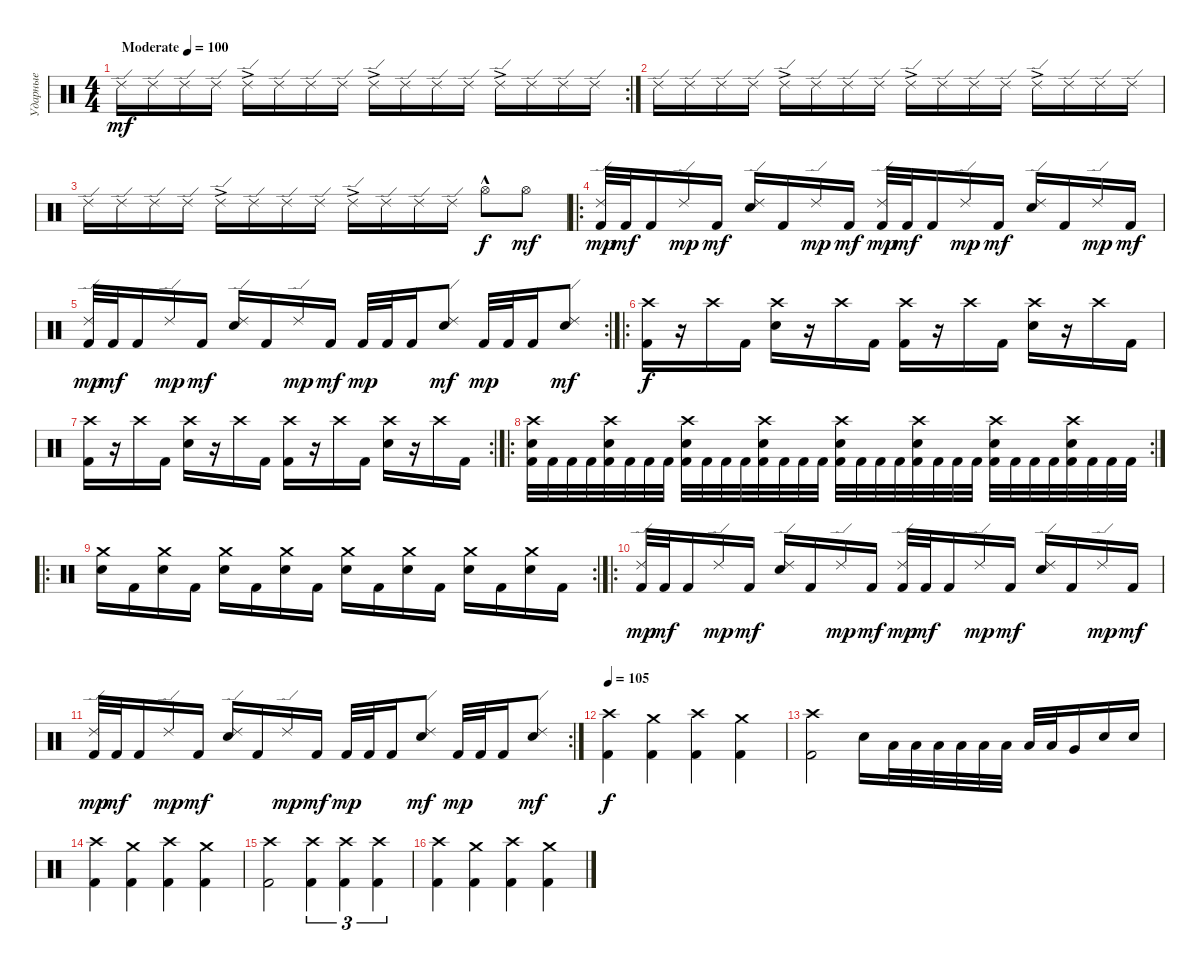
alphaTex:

\track ("Ударные" "Ударные") {instrument percussion}
\staff {score}
\articulation defaults
\rc 2
\ts (4 4)
\tempo (100 "Moderate")
\clef neutral
\ks c "Ride (edge) 2".16{dy mf} "Ride (edge) 2".16 "Ride (edge) 2".16 "Ride (edge) 2".16 "Ride (edge) 2"{ac}.16 "Ride (edge) 2".16 "Ride (edge) 2".16 "Ride (edge) 2".16 "Ride (edge) 2"{ac}.16 "Ride (edge) 2".16 "Ride (edge) 2".16 "Ride (edge) 2".16 "Ride (edge) 2"{ac}.16 "Ride (edge) 2".16 "Ride (edge) 2".16 "Ride (edge) 2".16
|
"Ride (edge) 2".16 "Ride (edge) 2".16 "Ride (edge) 2".16 "Ride (edge) 2".16 "Ride (edge) 2"{ac}.16 "Ride (edge) 2".16 "Ride (edge) 2".16 "Ride (edge) 2".16 "Ride (edge) 2"{ac}.16 "Ride (edge) 2".16 "Ride (edge) 2".16 "Ride (edge) 2".16 "Ride (edge) 2"{ac}.16 "Ride (edge) 2".16 "Ride (edge) 2".16 "Ride (edge) 2".16 |
"Ride (edge) 2".16 "Ride (edge) 2".16 "Ride (edge) 2".16 "Ride (edge) 2".16 "Ride (edge) 2"{ac}.16 "Ride (edge) 2".16 "Ride (edge) 2".16 "Ride (edge) 2".16 "Ride (edge) 2"{ac}.16 "Ride (edge) 2".16 "Ride (edge) 2".16 "Ride (edge) 2".16 "Hi-Hat (open)"{hac}.8{dy f} "Hi-Hat (open)".8{dy mf} |
\ro
("Kick (hit) 2" "Ride (edge) 2").32{dy mp} "Kick (hit) 2".32{dy mf} "Kick (hit) 2".16 "Ride (edge) 2".16{dy mp} "Kick (hit) 2".16{dy mf} ("Ride (edge) 2" "Electric Snare (hit)").16 "Kick (hit) 2".16 "Ride (edge) 2".16{dy mp} "Kick (hit) 2".16{dy mf} ("Kick (hit) 2" "Ride (edge) 2").32{dy mp} "Kick (hit) 2".32{dy mf} "Kick (hit) 2".16 "Ride (edge) 2".16{dy mp} "Kick (hit) 2".16{dy mf} ("Ride (edge) 2" "Electric Snare (hit)").16 "Kick (hit) 2".16 "Ride (edge) 2".16{dy mp} "Kick (hit) 2".16{dy mf} |
\rc 2
("Kick (hit) 2" "Ride (edge) 2").32{dy mp} "Kick (hit) 2".32{dy mf} "Kick (hit) 2".16 "Ride (edge) 2".16{dy mp} "Kick (hit) 2".16{dy mf} ("Ride (edge) 2" "Electric Snare (hit)").16 "Kick (hit) 2".16 "Ride (edge) 2".16{dy mp} "Kick (hit) 2".16{dy mf} "Kick (hit) 2".32{dy mp} "Kick (hit) 2".32 "Kick (hit) 2".16 ("Electric Snare (hit)" "Ride (edge) 2").8{dy mf} "Kick (hit) 2".32{dy mp} "Kick (hit) 2".32 "Kick (hit) 2".16 ("Electric Snare (hit)" "Ride (edge) 2").8{dy mf} |
\ro
("Crash high (hit)" "Kick (hit) 2").16{dy f} r.16 "Crash high (hit)".16 "Kick (hit) 2".16 ("Crash high (hit)" "Electric Snare (hit)").16 r.16 "Crash high (hit)".16 "Kick (hit) 2".16 ("Crash high (hit)" "Kick (hit) 2").16 r.16 "Crash high (hit)".16 "Kick (hit) 2".16 ("Crash high (hit)" "Electric Snare (hit)").16 r.16 "Crash high (hit)".16 "Kick (hit) 2".16 |
\rc 2
("Crash high (hit)" "Kick (hit) 2").16 r.16 "Crash high (hit)".16 "Kick (hit) 2".16 ("Crash high (hit)" "Electric Snare (hit)").16 r.16 "Crash high (hit)".16 "Kick (hit) 2".16 ("Crash high (hit)" "Kick (hit) 2").16 r.16 "Crash high (hit)".16 "Kick (hit) 2".16 ("Crash high (hit)" "Electric Snare (hit)").16 r.16 "Crash high (hit)".16 "Kick (hit) 2".16 |
\ro
\rc 2
("Kick (hit) 2" "Crash high (hit)" "Electric Snare (hit)").32 "Kick (hit) 2".32 "Kick (hit) 2".32 "Kick (hit) 2".32 ("Kick (hit) 2" "Crash high (hit)" "Electric Snare (hit)").32 "Kick (hit) 2".32 "Kick (hit) 2".32 "Kick (hit) 2".32 ("Kick (hit) 2" "Crash high (hit)" "Electric Snare (hit)").32 "Kick (hit) 2".32 "Kick (hit) 2".32 "Kick (hit) 2".32 ("Kick (hit) 2" "Crash high (hit)" "Electric Snare (hit)").32 "Kick (hit) 2".32 "Kick (hit) 2".32 "Kick (hit) 2".32 ("Kick (hit) 2" "Crash high (hit)" "Electric Snare (hit)").32 "Kick (hit) 2".32 "Kick (hit) 2".32 "Kick (hit) 2".32 ("Kick (hit) 2" "Crash high (hit)" "Electric Snare (hit)").32 "Kick (hit) 2".32 "Kick (hit) 2".32 "Kick (hit) 2".32 ("Kick (hit) 2" "Crash high (hit)" "Electric Snare (hit)").32 "Kick (hit) 2".32 "Kick (hit) 2".32 "Kick (hit) 2".32 ("Kick (hit) 2" "Crash high (hit)" "Electric Snare (hit)").32 "Kick (hit) 2".32 "Kick (hit) 2".32 "Kick (hit) 2".32 |
\ro
\rc 2
("Electric Snare (hit)" "Crash medium (hit)").16 "Kick (hit) 2".16 ("Electric Snare (hit)" "Crash medium (hit)").16 "Kick (hit) 2".16 ("Electric Snare (hit)" "Crash medium (hit)").16 "Kick (hit) 2".16 ("Electric Snare (hit)" "Crash medium (hit)").16 "Kick (hit) 2".16 ("Electric Snare (hit)" "Crash medium (hit)").16 "Kick (hit) 2".16 ("Electric Snare (hit)" "Crash medium (hit)").16 "Kick (hit) 2".16 ("Electric Snare (hit)" "Crash medium (hit)").16 "Kick (hit) 2".16 ("Electric Snare (hit)" "Crash medium (hit)").16 "Kick (hit) 2".16 |
\ro
("Kick (hit) 2" "Ride (edge) 2").32{dy mp} "Kick (hit) 2".32{dy mf} "Kick (hit) 2".16 "Ride (edge) 2".16{dy mp} "Kick (hit) 2".16{dy mf} ("Ride (edge) 2" "Electric Snare (hit)").16 "Kick (hit) 2".16 "Ride (edge) 2".16{dy mp} "Kick (hit) 2".16{dy mf} ("Kick (hit) 2" "Ride (edge) 2").32{dy mp} "Kick (hit) 2".32{dy mf} "Kick (hit) 2".16 "Ride (edge) 2".16{dy mp} "Kick (hit) 2".16{dy mf} ("Ride (edge) 2" "Electric Snare (hit)").16 "Kick (hit) 2".16 "Ride (edge) 2".16{dy mp} "Kick (hit) 2".16{dy mf} |
\rc 2
("Kick (hit) 2" "Ride (edge) 2").32{dy mp} "Kick (hit) 2".32{dy mf} "Kick (hit) 2".16 "Ride (edge) 2".16{dy mp} "Kick (hit) 2".16{dy mf} ("Ride (edge) 2" "Electric Snare (hit)").16 "Kick (hit) 2".16 "Ride (edge) 2".16{dy mp} "Kick (hit) 2".16{dy mf} "Kick (hit) 2".32{dy mp} "Kick (hit) 2".32 "Kick (hit) 2".16 ("Electric Snare (hit)" "Ride (edge) 2").8{dy mf} "Kick (hit) 2".32{dy mp} "Kick (hit) 2".32 "Kick (hit) 2".16 ("Electric Snare (hit)" "Ride (edge) 2").8{dy mf} |
\tempo 105
("Crash high (hit)" "Kick (hit) 2").4{dy f} ("Crash medium (hit)" "Kick (hit) 2").4 ("Crash high (hit)" "Kick (hit) 2").4 ("Crash medium (hit)" "Kick (hit) 2").4 |
("Crash high (hit)" "Kick (hit) 2").2 "Electric Snare (hit)".16 "Low Tom (hit)".32 "Low Tom (hit)".32 "Low Tom (hit)".32 "Low Tom (hit)".32 "Low Floor Tom (hit)".32 "Low Floor Tom (hit)".32 "Low Floor Tom (hit)".32 "Low Floor Tom (hit)".32 "Very Low Tom (hit)".16 "Electric Snare (hit)".16 "Electric Snare (hit)".16 |
("Crash high (hit)" "Kick (hit) 2").4 ("Crash medium (hit)" "Kick (hit) 2").4 ("Crash high (hit)" "Kick (hit) 2").4 ("Crash medium (hit)" "Kick (hit) 2").4 |
("Crash high (hit)" "Kick (hit) 2").2 ("Crash high (hit)" "Kick (hit) 2").4{tu (3 2)} ("Crash high (hit)" "Kick (hit) 2").4{tu (3 2)} ("Crash high (hit)" "Kick (hit) 2").4{tu (3 2)} |
("Crash high (hit)" "Kick (hit) 2").4 ("Crash medium (hit)" "Kick (hit) 2").4 ("Crash high (hit)" "Kick (hit) 2").4 ("Crash medium (hit)" "Kick (hit) 2").4
